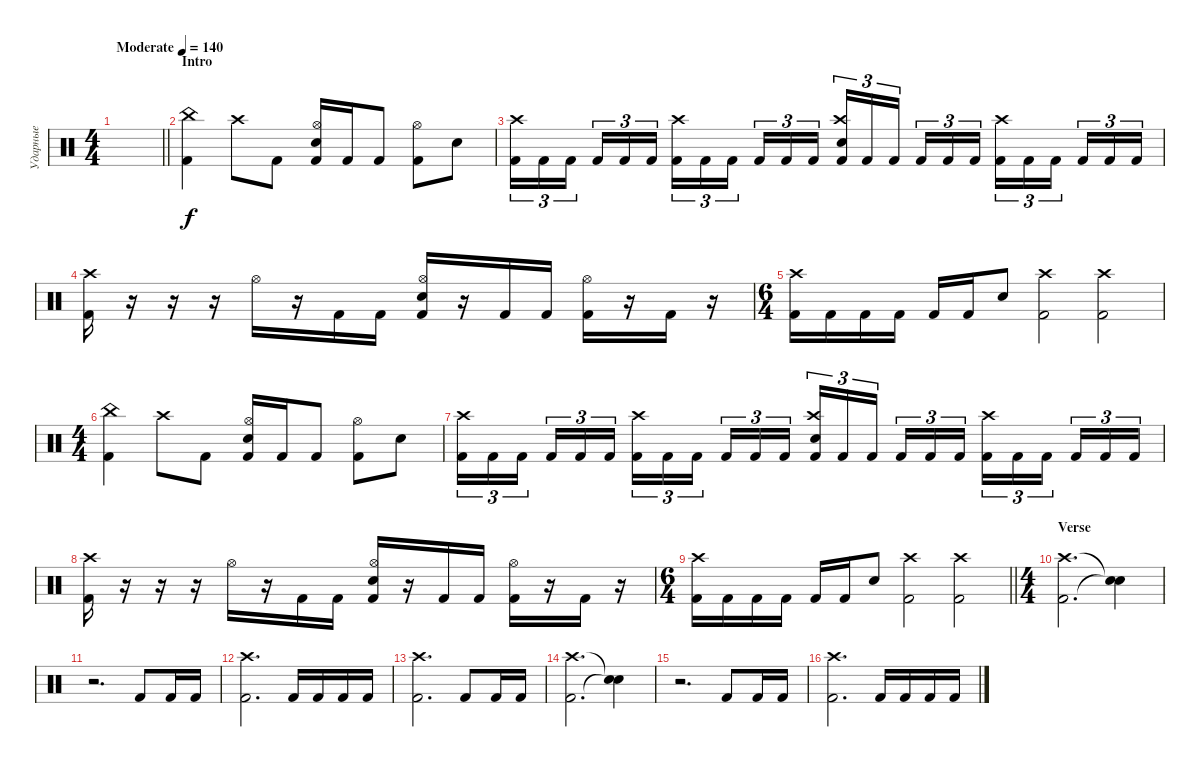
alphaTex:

\track ("Ударные" "Ударные") {instrument percussion}
\staff {score}
\articulation defaults
\ts (4 4)
\tempo (140 "Moderate")
\clef neutral
\barLineRight lightlight
\ks c
|
\section ("" "Intro")
("China (hit)" "Kick (hit) 2").4 "Crash high (hit)".8 "Kick (hit) 2".8 ("Hi-Hat (open)" "Electric Snare (hit)" "Kick (hit) 2").16 "Kick (hit) 2".16 "Kick (hit) 2".8 ("Hi-Hat (open)" "Kick (hit) 2").8 "Electric Snare (hit)".8 |
("Crash high (hit)" "Kick (hit) 2").16{tu (3 2)} "Kick (hit) 2".16{tu (3 2)} "Kick (hit) 2".16{tu (3 2) beam splitsecondary} "Kick (hit) 2".16{tu (3 2)} "Kick (hit) 2".16{tu (3 2)} "Kick (hit) 2".16{tu (3 2)} ("Crash high (hit)" "Kick (hit) 2").16{tu (3 2)} "Kick (hit) 2".16{tu (3 2)} "Kick (hit) 2".16{tu (3 2) beam splitsecondary} "Kick (hit) 2".16{tu (3 2)} "Kick (hit) 2".16{tu (3 2)} "Kick (hit) 2".16{tu (3 2)} ("Crash high (hit)" "Electric Snare (hit)" "Kick (hit) 2").16{tu (3 2)} "Kick (hit) 2".16{tu (3 2)} "Kick (hit) 2".16{tu (3 2) beam splitsecondary} "Kick (hit) 2".16{tu (3 2)} "Kick (hit) 2".16{tu (3 2)} "Kick (hit) 2".16{tu (3 2)} ("Crash high (hit)" "Kick (hit) 2").16{tu (3 2)} "Kick (hit) 2".16{tu (3 2)} "Kick (hit) 2".16{tu (3 2) beam splitsecondary} "Kick (hit) 2".16{tu (3 2)} "Kick (hit) 2".16{tu (3 2)} "Kick (hit) 2".16{tu (3 2)} |
("Crash high (hit)" "Kick (hit) 2").16 r.16 r.16 r.16 "Hi-Hat (open)".16 r.16 "Kick (hit) 2".16 "Kick (hit) 2".16 ("Hi-Hat (open)" "Electric Snare (hit)" "Kick (hit) 2").16 r.16 "Kick (hit) 2".16 "Kick (hit) 2".16 ("Hi-Hat (open)" "Kick (hit) 2").16 r.16 "Kick (hit) 2".16 r.16 |
\ts (6 4)
("Crash high (hit)" "Kick (hit) 2").16 "Kick (hit) 2".16 "Kick (hit) 2".16 "Kick (hit) 2".16 "Kick (hit) 2".16 "Kick (hit) 2".16 "Electric Snare (hit)".8 ("Crash high (hit)" "Kick (hit) 2").2 ("Crash high (hit)" "Kick (hit) 2").2 |
\ts (4 4)
("China (hit)" "Kick (hit) 2").4 "Crash high (hit)".8 "Kick (hit) 2".8 ("Hi-Hat (open)" "Electric Snare (hit)" "Kick (hit) 2").16 "Kick (hit) 2".16 "Kick (hit) 2".8 ("Hi-Hat (open)" "Kick (hit) 2").8 "Electric Snare (hit)".8 |
("Crash high (hit)" "Kick (hit) 2").16{tu (3 2)} "Kick (hit) 2".16{tu (3 2)} "Kick (hit) 2".16{tu (3 2) beam splitsecondary} "Kick (hit) 2".16{tu (3 2)} "Kick (hit) 2".16{tu (3 2)} "Kick (hit) 2".16{tu (3 2)} ("Crash high (hit)" "Kick (hit) 2").16{tu (3 2)} "Kick (hit) 2".16{tu (3 2)} "Kick (hit) 2".16{tu (3 2) beam splitsecondary} "Kick (hit) 2".16{tu (3 2)} "Kick (hit) 2".16{tu (3 2)} "Kick (hit) 2".16{tu (3 2)} ("Crash high (hit)" "Electric Snare (hit)" "Kick (hit) 2").16{tu (3 2)} "Kick (hit) 2".16{tu (3 2)} "Kick (hit) 2".16{tu (3 2) beam splitsecondary} "Kick (hit) 2".16{tu (3 2)} "Kick (hit) 2".16{tu (3 2)} "Kick (hit) 2".16{tu (3 2)} ("Crash high (hit)" "Kick (hit) 2").16{tu (3 2)} "Kick (hit) 2".16{tu (3 2)} "Kick (hit) 2".16{tu (3 2) beam splitsecondary} "Kick (hit) 2".16{tu (3 2)} "Kick (hit) 2".16{tu (3 2)} "Kick (hit) 2".16{tu (3 2)} |
("Crash high (hit)" "Kick (hit) 2").16 r.16 r.16 r.16 "Hi-Hat (open)".16 r.16 "Kick (hit) 2".16 "Kick (hit) 2".16 ("Hi-Hat (open)" "Electric Snare (hit)" "Kick (hit) 2").16 r.16 "Kick (hit) 2".16 "Kick (hit) 2".16 ("Hi-Hat (open)" "Kick (hit) 2").16 r.16 "Kick (hit) 2".16 r.16 |
\ts (6 4)
\barLineRight lightlight
("Crash high (hit)" "Kick (hit) 2").16 "Kick (hit) 2".16 "Kick (hit) 2".16 "Kick (hit) 2".16 "Kick (hit) 2".16 "Kick (hit) 2".16 "Electric Snare (hit)".8 ("Crash high (hit)" "Kick (hit) 2").2 ("Crash high (hit)" "Kick (hit) 2").2 |
\ts (4 4)
\section ("" "Verse")
("Crash high (hit)" "Kick (hit) 2").2{d} ("Snare (hit)"{t} "Snare (hit)"{t}).4 |
r.2{d} "Kick (hit) 2".8 "Kick (hit) 2".16 "Kick (hit) 2".16 |
("Crash high (hit)" "Kick (hit) 2").2{d} "Kick (hit) 2".16 "Kick (hit) 2".16 "Kick (hit) 2".16 "Kick (hit) 2".16 |
("Crash high (hit)" "Kick (hit) 2").2{d} "Kick (hit) 2".8 "Kick (hit) 2".16 "Kick (hit) 2".16 |
("Crash high (hit)" "Kick (hit) 2").2{d} ("Snare (hit)"{t} "Snare (hit)"{t}).4 |
r.2{d} "Kick (hit) 2".8 "Kick (hit) 2".16 "Kick (hit) 2".16 |
("Crash high (hit)" "Kick (hit) 2").2{d} "Kick (hit) 2".16 "Kick (hit) 2".16 "Kick (hit) 2".16 "Kick (hit) 2".16
